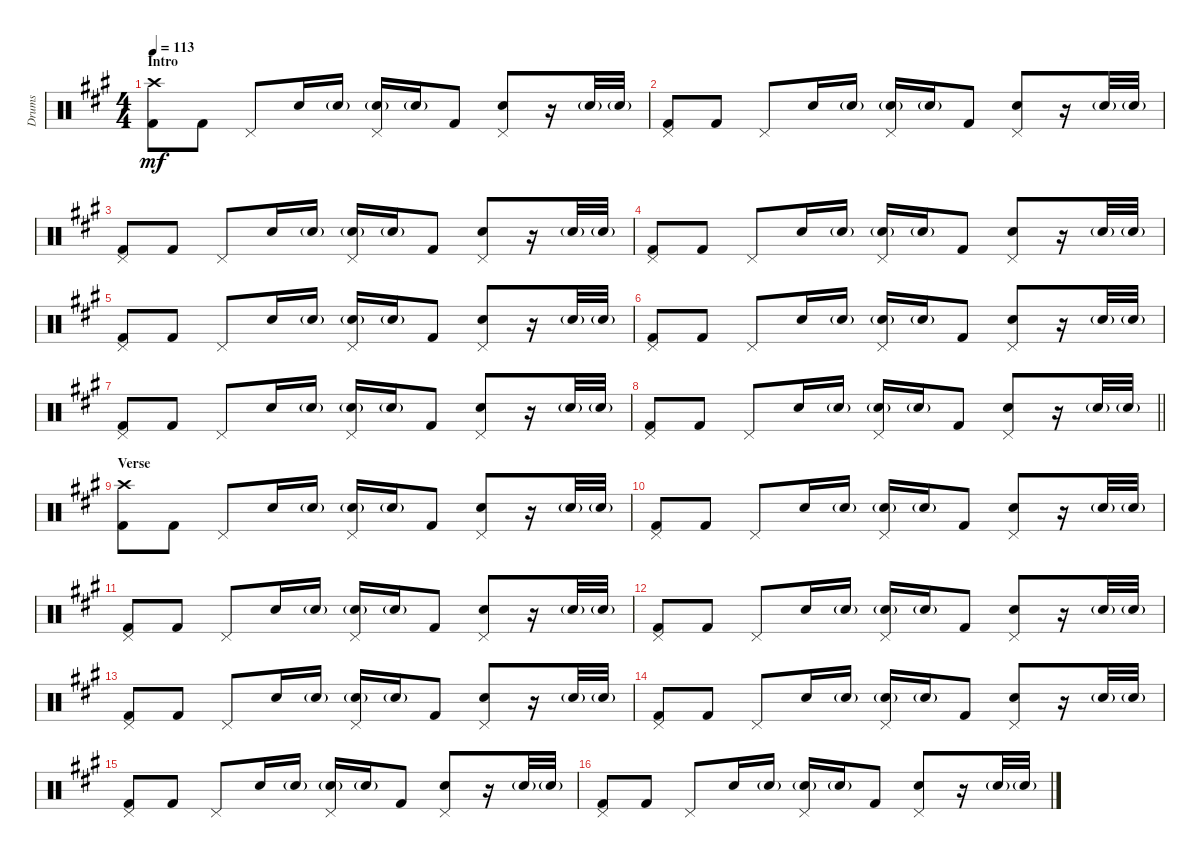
\track ("Drums" "Drums") {instrument percussion}
\staff {score}
\articulation defaults
\ts (4 4)
\section ("" "Intro")
\tempo 113
\clef neutral
\ks f#minor
("Crash high (hit)" "Kick (hit) 2").8{dy mf} "Kick (hit) 2".8 "Pedal Hi-Hat (hit)".8 "Snare (hit) 2".16 "Snare (hit) 2"{g}.16 ("Pedal Hi-Hat (hit)" "Snare (hit) 2"{g}).16 "Snare (hit) 2"{g}.16 "Kick (hit) 2".8 ("Pedal Hi-Hat (hit)" "Snare (hit) 2").8 r.16 "Snare (hit) 2"{g}.32 "Snare (hit) 2"{g}.32 |
("Pedal Hi-Hat (hit)" "Kick (hit) 2").8 "Kick (hit) 2".8 "Pedal Hi-Hat (hit)".8 "Snare (hit) 2".16 "Snare (hit) 2"{g}.16 ("Pedal Hi-Hat (hit)" "Snare (hit) 2"{g}).16 "Snare (hit) 2"{g}.16 "Kick (hit) 2".8 ("Pedal Hi-Hat (hit)" "Snare (hit) 2").8 r.16 "Snare (hit) 2"{g}.32 "Snare (hit) 2"{g}.32 |
("Pedal Hi-Hat (hit)" "Kick (hit) 2").8 "Kick (hit) 2".8 "Pedal Hi-Hat (hit)".8 "Snare (hit) 2".16 "Snare (hit) 2"{g}.16 ("Pedal Hi-Hat (hit)" "Snare (hit) 2"{g}).16 "Snare (hit) 2"{g}.16 "Kick (hit) 2".8 ("Pedal Hi-Hat (hit)" "Snare (hit) 2").8 r.16 "Snare (hit) 2"{g}.32 "Snare (hit) 2"{g}.32 |
("Pedal Hi-Hat (hit)" "Kick (hit) 2").8 "Kick (hit) 2".8 "Pedal Hi-Hat (hit)".8 "Snare (hit) 2".16 "Snare (hit) 2"{g}.16 ("Pedal Hi-Hat (hit)" "Snare (hit) 2"{g}).16 "Snare (hit) 2"{g}.16 "Kick (hit) 2".8 ("Pedal Hi-Hat (hit)" "Snare (hit) 2").8 r.16 "Snare (hit) 2"{g}.32 "Snare (hit) 2"{g}.32 |
("Pedal Hi-Hat (hit)" "Kick (hit) 2").8 "Kick (hit) 2".8 "Pedal Hi-Hat (hit)".8 "Snare (hit) 2".16 "Snare (hit) 2"{g}.16 ("Pedal Hi-Hat (hit)" "Snare (hit) 2"{g}).16 "Snare (hit) 2"{g}.16 "Kick (hit) 2".8 ("Pedal Hi-Hat (hit)" "Snare (hit) 2").8 r.16 "Snare (hit) 2"{g}.32 "Snare (hit) 2"{g}.32 |
("Pedal Hi-Hat (hit)" "Kick (hit) 2").8 "Kick (hit) 2".8 "Pedal Hi-Hat (hit)".8 "Snare (hit) 2".16 "Snare (hit) 2"{g}.16 ("Pedal Hi-Hat (hit)" "Snare (hit) 2"{g}).16 "Snare (hit) 2"{g}.16 "Kick (hit) 2".8 ("Pedal Hi-Hat (hit)" "Snare (hit) 2").8 r.16 "Snare (hit) 2"{g}.32 "Snare (hit) 2"{g}.32 |
("Pedal Hi-Hat (hit)" "Kick (hit) 2").8 "Kick (hit) 2".8 "Pedal Hi-Hat (hit)".8 "Snare (hit) 2".16 "Snare (hit) 2"{g}.16 ("Pedal Hi-Hat (hit)" "Snare (hit) 2"{g}).16 "Snare (hit) 2"{g}.16 "Kick (hit) 2".8 ("Pedal Hi-Hat (hit)" "Snare (hit) 2").8 r.16 "Snare (hit) 2"{g}.32 "Snare (hit) 2"{g}.32 |
\barLineRight lightlight
("Pedal Hi-Hat (hit)" "Kick (hit) 2").8 "Kick (hit) 2".8 "Pedal Hi-Hat (hit)".8 "Snare (hit) 2".16 "Snare (hit) 2"{g}.16 ("Pedal Hi-Hat (hit)" "Snare (hit) 2"{g}).16 "Snare (hit) 2"{g}.16 "Kick (hit) 2".8 ("Pedal Hi-Hat (hit)" "Snare (hit) 2").8 r.16 "Snare (hit) 2"{g}.32 "Snare (hit) 2"{g}.32 |
\section ("" "Verse")
("Crash high (hit)" "Kick (hit) 2").8 "Kick (hit) 2".8 "Pedal Hi-Hat (hit)".8 "Snare (hit) 2".16 "Snare (hit) 2"{g}.16 ("Pedal Hi-Hat (hit)" "Snare (hit) 2"{g}).16 "Snare (hit) 2"{g}.16 "Kick (hit) 2".8 ("Pedal Hi-Hat (hit)" "Snare (hit) 2").8 r.16 "Snare (hit) 2"{g}.32 "Snare (hit) 2"{g}.32 |
("Pedal Hi-Hat (hit)" "Kick (hit) 2").8 "Kick (hit) 2".8 "Pedal Hi-Hat (hit)".8 "Snare (hit) 2".16 "Snare (hit) 2"{g}.16 ("Pedal Hi-Hat (hit)" "Snare (hit) 2"{g}).16 "Snare (hit) 2"{g}.16 "Kick (hit) 2".8 ("Pedal Hi-Hat (hit)" "Snare (hit) 2").8 r.16 "Snare (hit) 2"{g}.32 "Snare (hit) 2"{g}.32 |
("Pedal Hi-Hat (hit)" "Kick (hit) 2").8 "Kick (hit) 2".8 "Pedal Hi-Hat (hit)".8 "Snare (hit) 2".16 "Snare (hit) 2"{g}.16 ("Pedal Hi-Hat (hit)" "Snare (hit) 2"{g}).16 "Snare (hit) 2"{g}.16 "Kick (hit) 2".8 ("Pedal Hi-Hat (hit)" "Snare (hit) 2").8 r.16 "Snare (hit) 2"{g}.32 "Snare (hit) 2"{g}.32 |
("Pedal Hi-Hat (hit)" "Kick (hit) 2").8 "Kick (hit) 2".8 "Pedal Hi-Hat (hit)".8 "Snare (hit) 2".16 "Snare (hit) 2"{g}.16 ("Pedal Hi-Hat (hit)" "Snare (hit) 2"{g}).16 "Snare (hit) 2"{g}.16 "Kick (hit) 2".8 ("Pedal Hi-Hat (hit)" "Snare (hit) 2").8 r.16 "Snare (hit) 2"{g}.32 "Snare (hit) 2"{g}.32 |
("Pedal Hi-Hat (hit)" "Kick (hit) 2").8 "Kick (hit) 2".8 "Pedal Hi-Hat (hit)".8 "Snare (hit) 2".16 "Snare (hit) 2"{g}.16 ("Pedal Hi-Hat (hit)" "Snare (hit) 2"{g}).16 "Snare (hit) 2"{g}.16 "Kick (hit) 2".8 ("Pedal Hi-Hat (hit)" "Snare (hit) 2").8 r.16 "Snare (hit) 2"{g}.32 "Snare (hit) 2"{g}.32 |
("Pedal Hi-Hat (hit)" "Kick (hit) 2").8 "Kick (hit) 2".8 "Pedal Hi-Hat (hit)".8 "Snare (hit) 2".16 "Snare (hit) 2"{g}.16 ("Pedal Hi-Hat (hit)" "Snare (hit) 2"{g}).16 "Snare (hit) 2"{g}.16 "Kick (hit) 2".8 ("Pedal Hi-Hat (hit)" "Snare (hit) 2").8 r.16 "Snare (hit) 2"{g}.32 "Snare (hit) 2"{g}.32 |
("Pedal Hi-Hat (hit)" "Kick (hit) 2").8 "Kick (hit) 2".8 "Pedal Hi-Hat (hit)".8 "Snare (hit) 2".16 "Snare (hit) 2"{g}.16 ("Pedal Hi-Hat (hit)" "Snare (hit) 2"{g}).16 "Snare (hit) 2"{g}.16 "Kick (hit) 2".8 ("Pedal Hi-Hat (hit)" "Snare (hit) 2").8 r.16 "Snare (hit) 2"{g}.32 "Snare (hit) 2"{g}.32 |
("Pedal Hi-Hat (hit)" "Kick (hit) 2").8 "Kick (hit) 2".8 "Pedal Hi-Hat (hit)".8 "Snare (hit) 2".16 "Snare (hit) 2"{g}.16 ("Pedal Hi-Hat (hit)" "Snare (hit) 2"{g}).16 "Snare (hit) 2"{g}.16 "Kick (hit) 2".8 ("Pedal Hi-Hat (hit)" "Snare (hit) 2").8 r.16 "Snare (hit) 2"{g}.32 "Snare (hit) 2"{g}.32
